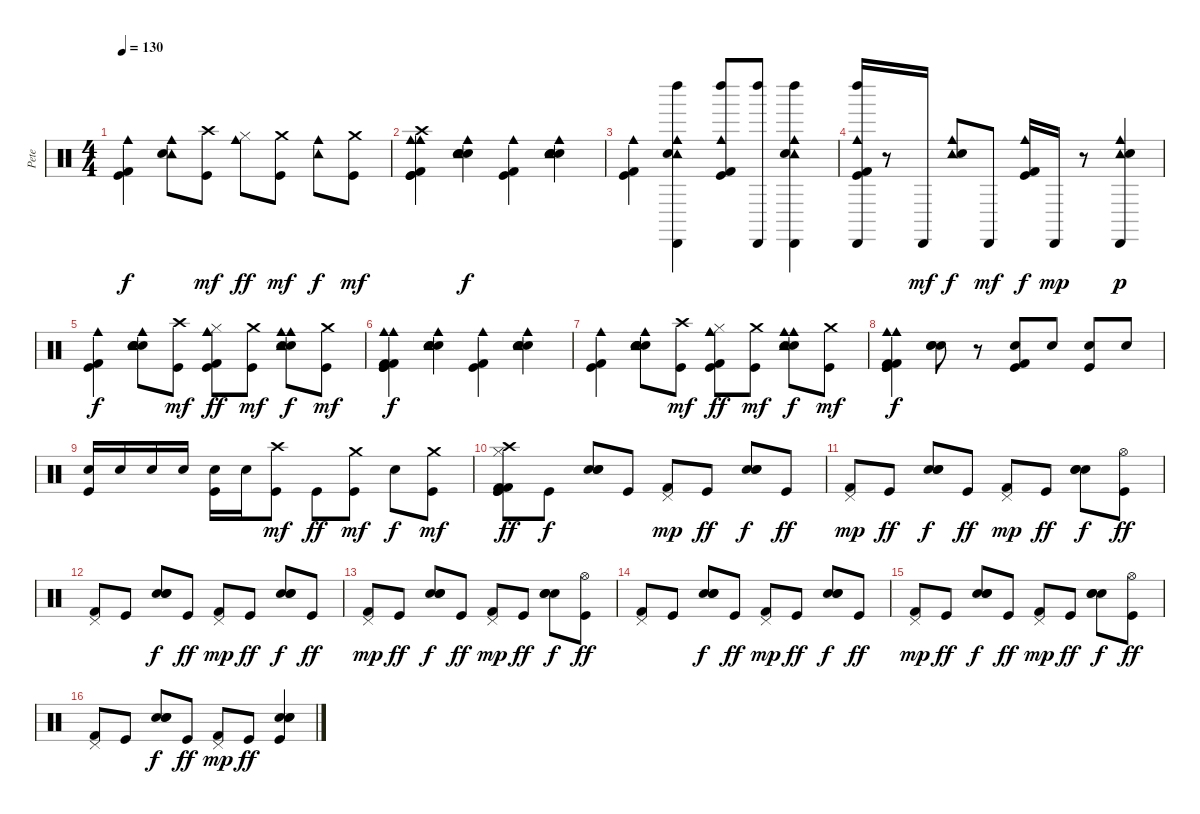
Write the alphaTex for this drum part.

\track ("Pete" "Pete") {instrument percussion}
\staff {score}
\articulation defaults
\ts (4 4)
\tempo 130
\clef neutral
\ks c
("Kick (hit)" "Kick (hit) 2" "Cowbell medium (hit)").4{dy f} ("Tambourine (hit)" "Hand Clap (hit)" "Cowbell medium (hit)").8 ("Kick (hit)" "Crash high (hit)").8{dy mf} ("Cowbell medium (hit)" "Hi-Hat (closed)").8{dy ff} ("Kick (hit)" "Crash medium (hit)").8{dy mf} ("Tambourine (hit)" "Cowbell medium (hit)").8{dy f} ("Crash medium (hit)" "Kick (hit)").8{dy mf} |
("Kick (hit)" "Kick (hit) 2" "Cowbell medium (hit)" "Cowbell medium (hit)" "Kick (hit)" "Crash high (hit)").4 ("Snare (hit) 2" "Tambourine (hit)" "Hand Clap (hit)" "Cowbell medium (hit)" "Electric Snare (hit)").4{dy f} ("Kick (hit)" "Kick (hit) 2" "Cowbell medium (hit)").4 ("Snare (hit) 2" "Tambourine (hit)" "Hand Clap (hit)" "Cowbell medium (hit)" "Electric Snare (hit)").4 |
("Cowbell medium (hit)" "Kick (hit)" "Kick (hit) 2").4 ("Cabasa (hit)" "Left Maraca (hit)" "Tambourine (hit)" "Hand Clap (hit)" "Cowbell medium (hit)").4 ("Left Maraca (hit)" "Cowbell medium (hit)" "Kick (hit)" "Kick (hit) 2").8 ("Left Maraca (hit)" "Cabasa (hit)").8 ("Tambourine (hit)" "Hand Clap (hit)" "Cowbell medium (hit)" "Left Maraca (hit)" "Cabasa (hit)").4 |
("Kick (hit)" "Kick (hit) 2" "Cowbell medium (hit)" "Left Maraca (hit)" "Cabasa (hit)").16 r.8 "Cabasa (hit)".16{dy mf} ("Tambourine (hit)" "Cowbell medium (hit)" "Hand Clap (hit)").8{dy f} "Cabasa (hit)".8{dy mf} ("Cowbell medium (hit)" "Kick (hit)" "Kick (hit) 2").16{dy f} "Cabasa (hit)".16{dy mp} r.8 ("Tambourine (hit)" "Cowbell medium (hit)" "Hand Clap (hit)" "Cabasa (hit)").4{dy p} |
("Cowbell medium (hit)" "Kick (hit)" "Kick (hit) 2").4{dy f} ("Snare (hit) 2" "Tambourine (hit)" "Cowbell medium (hit)" "Hand Clap (hit)" "Electric Snare (hit)").8 ("Kick (hit)" "Crash high (hit)").8{dy mf} ("Cowbell medium (hit)" "Kick (hit)" "Kick (hit) 2" "Cowbell medium (hit)" "Hi-Hat (closed)").8{dy ff} ("Kick (hit)" "Crash medium (hit)").8{dy mf} ("Snare (hit) 2" "Cowbell medium (hit)" "Hand Clap (hit)" "Tambourine (hit)" "Tambourine (hit)" "Cowbell medium (hit)").8{dy f} ("Crash medium (hit)" "Kick (hit)").8{dy mf} |
("Kick (hit)" "Kick (hit) 2" "Cowbell medium (hit)" "Kick (hit)" "Kick (hit) 2" "Cowbell medium (hit)").4{dy f} ("Snare (hit) 2" "Tambourine (hit)" "Cowbell medium (hit)" "Hand Clap (hit)" "Electric Snare (hit)").4 ("Cowbell medium (hit)" "Kick (hit)" "Kick (hit) 2").4 ("Snare (hit) 2" "Tambourine (hit)" "Cowbell medium (hit)" "Hand Clap (hit)" "Electric Snare (hit)").4 |
("Cowbell medium (hit)" "Kick (hit)" "Kick (hit) 2").4 ("Snare (hit) 2" "Tambourine (hit)" "Cowbell medium (hit)" "Hand Clap (hit)" "Electric Snare (hit)").8 ("Kick (hit)" "Crash high (hit)").8{dy mf} ("Cowbell medium (hit)" "Kick (hit)" "Kick (hit) 2" "Cowbell medium (hit)" "Hi-Hat (closed)").8{dy ff} ("Kick (hit)" "Crash medium (hit)").8{dy mf} ("Snare (hit) 2" "Tambourine (hit)" "Cowbell medium (hit)" "Hand Clap (hit)" "Tambourine (hit)" "Cowbell medium (hit)").8{dy f} ("Crash medium (hit)" "Kick (hit)").8{dy mf} |
("Cowbell medium (hit)" "Kick (hit)" "Kick (hit) 2" "Kick (hit)" "Kick (hit) 2" "Cowbell medium (hit)").4{dy f} ("Snare (hit) 2" "Hand Clap (hit)" "Electric Snare (hit)").8 r.8 ("Electric Snare (hit)" "Kick (hit)" "Kick (hit) 2").8 "Electric Snare (hit)".8 ("Kick (hit)" "Electric Snare (hit)").8 "Electric Snare (hit)".8 |
("Kick (hit)" "Electric Snare (hit)").16 "Electric Snare (hit)".16 "Electric Snare (hit)".16 "Electric Snare (hit)".16 ("Kick (hit)" "Electric Snare (hit)").16 "Electric Snare (hit)".16 ("Kick (hit)" "Crash high (hit)").8{dy mf} "Kick (hit)".8{dy ff} ("Kick (hit)" "Crash medium (hit)").8{dy mf} "Snare (hit) 2".8{dy f} ("Crash medium (hit)" "Kick (hit)").8{dy mf} |
("Kick (hit)" "Kick (hit) 2" "Kick (hit)" "Crash high (hit)" "Hi-Hat (closed)" "Kick (hit) 2").8{dy ff} "Kick (hit)".8{dy f} ("Hand Clap (hit)" "Snare (hit) 2" "Electric Snare (hit)").8 "Kick (hit)".8 ("Pedal Hi-Hat (hit)" "Kick (hit) 2").8{dy mp} "Kick (hit)".8{dy ff} ("Hand Clap (hit)" "Snare (hit) 2" "Electric Snare (hit)").8{dy f} "Kick (hit)".8{dy ff} |
("Pedal Hi-Hat (hit)" "Kick (hit) 2").8{dy mp} "Kick (hit)".8{dy ff} ("Hand Clap (hit)" "Snare (hit) 2" "Electric Snare (hit)").8{dy f} "Kick (hit)".8{dy ff} ("Pedal Hi-Hat (hit)" "Kick (hit) 2").8{dy mp} "Kick (hit)".8{dy ff} ("Hand Clap (hit)" "Snare (hit) 2" "Electric Snare (hit)").8{dy f} ("Kick (hit)" "Hi-Hat (open)").8{dy ff} |
("Pedal Hi-Hat (hit)" "Kick (hit) 2").8 "Kick (hit)".8 ("Hand Clap (hit)" "Snare (hit) 2" "Electric Snare (hit)").8{dy f} "Kick (hit)".8{dy ff} ("Kick (hit) 2" "Pedal Hi-Hat (hit)").8{dy mp} "Kick (hit)".8{dy ff} ("Hand Clap (hit)" "Snare (hit) 2" "Electric Snare (hit)").8{dy f} "Kick (hit)".8{dy ff} |
("Pedal Hi-Hat (hit)" "Kick (hit) 2").8{dy mp} "Kick (hit)".8{dy ff} ("Hand Clap (hit)" "Snare (hit) 2" "Electric Snare (hit)").8{dy f} "Kick (hit)".8{dy ff} ("Pedal Hi-Hat (hit)" "Kick (hit) 2").8{dy mp} "Kick (hit)".8{dy ff} ("Hand Clap (hit)" "Snare (hit) 2" "Electric Snare (hit)").8{dy f} ("Kick (hit)" "Hi-Hat (open)").8{dy ff} |
("Pedal Hi-Hat (hit)" "Kick (hit) 2").8 "Kick (hit)".8 ("Hand Clap (hit)" "Snare (hit) 2" "Electric Snare (hit)").8{dy f} "Kick (hit)".8{dy ff} ("Kick (hit) 2" "Pedal Hi-Hat (hit)").8{dy mp} "Kick (hit)".8{dy ff} ("Hand Clap (hit)" "Snare (hit) 2" "Electric Snare (hit)").8{dy f} "Kick (hit)".8{dy ff} |
("Pedal Hi-Hat (hit)" "Kick (hit) 2").8{dy mp} "Kick (hit)".8{dy ff} ("Hand Clap (hit)" "Snare (hit) 2" "Electric Snare (hit)").8{dy f} "Kick (hit)".8{dy ff} ("Pedal Hi-Hat (hit)" "Kick (hit) 2").8{dy mp} "Kick (hit)".8{dy ff} ("Hand Clap (hit)" "Snare (hit) 2" "Electric Snare (hit)").8{dy f} ("Kick (hit)" "Hi-Hat (open)").8{dy ff} |
("Pedal Hi-Hat (hit)" "Kick (hit) 2").8 "Kick (hit)".8 ("Hand Clap (hit)" "Snare (hit) 2" "Electric Snare (hit)").8{dy f} "Kick (hit)".8{dy ff} ("Pedal Hi-Hat (hit)" "Kick (hit) 2").8{dy mp} "Kick (hit)".8{dy ff} ("Hand Clap (hit)" "Snare (hit) 2" "Electric Snare (hit)" "Kick (hit)").4
